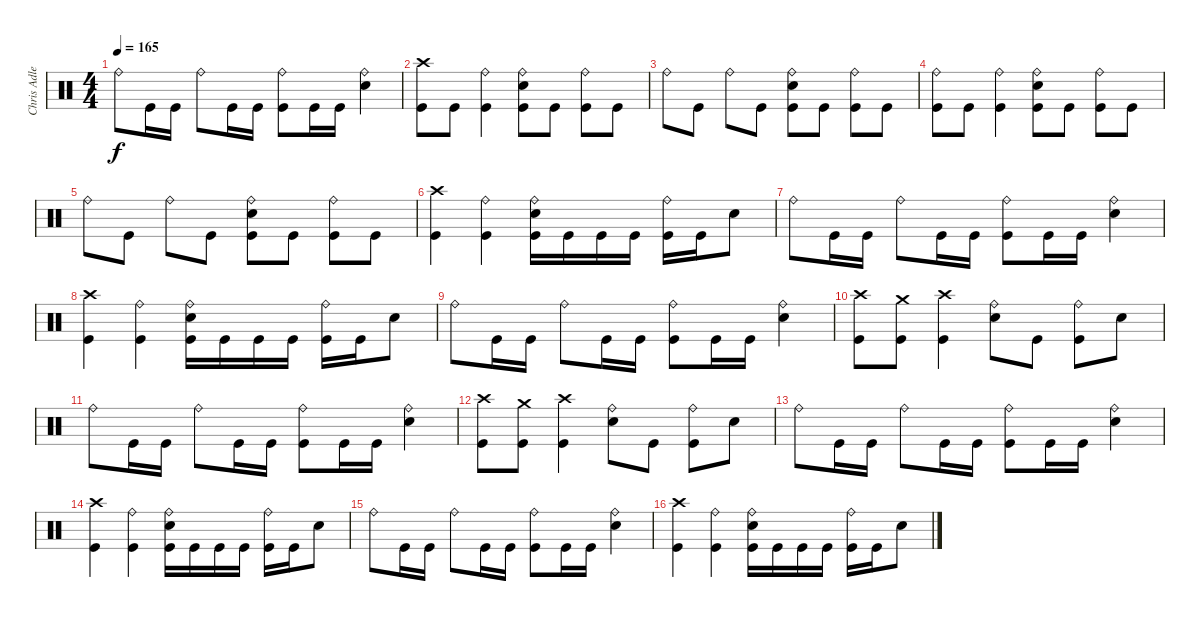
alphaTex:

\track ("Chris Adler" "Chris Adle") {instrument percussion}
\staff {score}
\articulation defaults
\ts (4 4)
\tempo 165
\clef neutral
\ks c "Ride (bell)".8{dy f} "Kick (hit)".16 "Kick (hit)".16 "Ride (bell)".8 "Kick (hit)".16 "Kick (hit)".16
("Ride (bell)" "Kick (hit)").8 "Kick (hit)".16 "Kick (hit)".16 ("Ride (bell)" "Electric Snare (hit)").4 |
("Crash high (hit)" "Kick (hit)").8 "Kick (hit)".8 ("Ride (bell)" "Kick (hit)").4 ("Ride (bell)" "Electric Snare (hit)" "Kick (hit)").8 "Kick (hit)".8 ("Ride (bell)" "Kick (hit)").8 "Kick (hit)".8 |
"Ride (bell)".8 "Kick (hit)".8 "Ride (bell)".8 "Kick (hit)".8 ("Ride (bell)" "Electric Snare (hit)" "Kick (hit)").8 "Kick (hit)".8 ("Ride (bell)" "Kick (hit)").8 "Kick (hit)".8 |
("Ride (bell)" "Kick (hit)").8 "Kick (hit)".8 ("Ride (bell)" "Kick (hit)").4 ("Ride (bell)" "Electric Snare (hit)" "Kick (hit)").8 "Kick (hit)".8 ("Ride (bell)" "Kick (hit)").8 "Kick (hit)".8 |
"Ride (bell)".8 "Kick (hit)".8 "Ride (bell)".8 "Kick (hit)".8 ("Ride (bell)" "Electric Snare (hit)" "Kick (hit)").8 "Kick (hit)".8 ("Ride (bell)" "Kick (hit)").8 "Kick (hit)".8 |
("Crash high (hit)" "Kick (hit)").4 ("Ride (bell)" "Kick (hit)").4 ("Ride (bell)" "Electric Snare (hit)" "Kick (hit)").16 "Kick (hit)".16 "Kick (hit)".16 "Kick (hit)".16 ("Ride (bell)" "Kick (hit)").16 "Kick (hit)".16 "Electric Snare (hit)".8 |
"Ride (bell)".8 "Kick (hit)".16 "Kick (hit)".16 "Ride (bell)".8 "Kick (hit)".16 "Kick (hit)".16 ("Ride (bell)" "Kick (hit)").8 "Kick (hit)".16 "Kick (hit)".16 ("Ride (bell)" "Electric Snare (hit)").4 |
("Crash high (hit)" "Kick (hit)").4 ("Ride (bell)" "Kick (hit)").4 ("Ride (bell)" "Electric Snare (hit)" "Kick (hit)").16 "Kick (hit)".16 "Kick (hit)".16 "Kick (hit)".16 ("Ride (bell)" "Kick (hit)").16 "Kick (hit)".16 "Electric Snare (hit)".8 |
"Ride (bell)".8 "Kick (hit)".16 "Kick (hit)".16 "Ride (bell)".8 "Kick (hit)".16 "Kick (hit)".16 ("Ride (bell)" "Kick (hit)").8 "Kick (hit)".16 "Kick (hit)".16 ("Ride (bell)" "Electric Snare (hit)").4 |
("Crash high (hit)" "Kick (hit)").8 ("Crash medium (hit)" "Kick (hit)").8 ("Crash high (hit)" "Kick (hit)").4 ("Ride (bell)" "Electric Snare (hit)").8 "Kick (hit)".8 ("Ride (bell)" "Kick (hit)").8 "Electric Snare (hit)".8 |
"Ride (bell)".8 "Kick (hit)".16 "Kick (hit)".16 "Ride (bell)".8 "Kick (hit)".16 "Kick (hit)".16 ("Ride (bell)" "Kick (hit)").8 "Kick (hit)".16 "Kick (hit)".16 ("Ride (bell)" "Electric Snare (hit)").4 |
("Crash high (hit)" "Kick (hit)").8 ("Crash medium (hit)" "Kick (hit)").8 ("Crash high (hit)" "Kick (hit)").4 ("Ride (bell)" "Electric Snare (hit)").8 "Kick (hit)".8 ("Ride (bell)" "Kick (hit)").8 "Electric Snare (hit)".8 |
"Ride (bell)".8 "Kick (hit)".16 "Kick (hit)".16 "Ride (bell)".8 "Kick (hit)".16 "Kick (hit)".16 ("Ride (bell)" "Kick (hit)").8 "Kick (hit)".16 "Kick (hit)".16 ("Ride (bell)" "Electric Snare (hit)").4 |
("Crash high (hit)" "Kick (hit)").4 ("Ride (bell)" "Kick (hit)").4 ("Ride (bell)" "Electric Snare (hit)" "Kick (hit)").16 "Kick (hit)".16 "Kick (hit)".16 "Kick (hit)".16 ("Ride (bell)" "Kick (hit)").16 "Kick (hit)".16 "Electric Snare (hit)".8 |
"Ride (bell)".8 "Kick (hit)".16 "Kick (hit)".16 "Ride (bell)".8 "Kick (hit)".16 "Kick (hit)".16 ("Ride (bell)" "Kick (hit)").8 "Kick (hit)".16 "Kick (hit)".16 ("Ride (bell)" "Electric Snare (hit)").4 |
("Crash high (hit)" "Kick (hit)").4 ("Ride (bell)" "Kick (hit)").4 ("Ride (bell)" "Electric Snare (hit)" "Kick (hit)").16 "Kick (hit)".16 "Kick (hit)".16 "Kick (hit)".16 ("Ride (bell)" "Kick (hit)").16 "Kick (hit)".16 "Electric Snare (hit)".8
